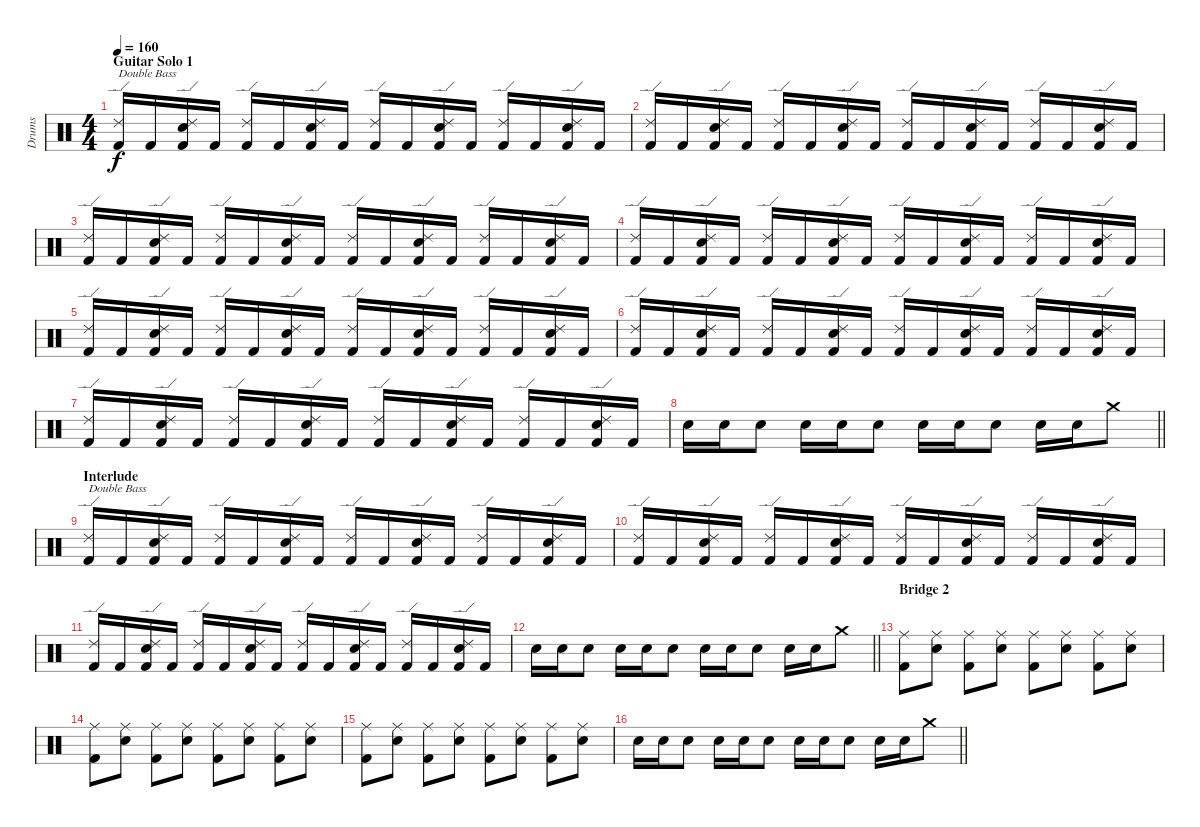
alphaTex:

\track ("Drums" "Drums") {instrument percussion}
\staff {score}
\articulation defaults
\ts (4 4)
\section ("" "Guitar Solo 1")
\tempo 160
\clef neutral
\ks c
("Ride (edge) 2" "Kick (hit) 2").16{txt "Double Bass" dy f} "Kick (hit) 2".16 ("Ride (edge) 2" "Electric Snare (hit)" "Kick (hit) 2").16 "Kick (hit) 2".16 ("Ride (edge) 2" "Kick (hit) 2").16 "Kick (hit) 2".16 ("Ride (edge) 2" "Electric Snare (hit)" "Kick (hit) 2").16 "Kick (hit) 2".16 ("Ride (edge) 2" "Kick (hit) 2").16 "Kick (hit) 2".16 ("Ride (edge) 2" "Electric Snare (hit)" "Kick (hit) 2").16 "Kick (hit) 2".16 ("Ride (edge) 2" "Kick (hit) 2").16 "Kick (hit) 2".16 ("Ride (edge) 2" "Electric Snare (hit)" "Kick (hit) 2").16 "Kick (hit) 2".16 |
("Ride (edge) 2" "Kick (hit) 2").16 "Kick (hit) 2".16 ("Ride (edge) 2" "Electric Snare (hit)" "Kick (hit) 2").16 "Kick (hit) 2".16 ("Ride (edge) 2" "Kick (hit) 2").16 "Kick (hit) 2".16 ("Ride (edge) 2" "Electric Snare (hit)" "Kick (hit) 2").16 "Kick (hit) 2".16 ("Ride (edge) 2" "Kick (hit) 2").16 "Kick (hit) 2".16 ("Ride (edge) 2" "Electric Snare (hit)" "Kick (hit) 2").16 "Kick (hit) 2".16 ("Ride (edge) 2" "Kick (hit) 2").16 "Kick (hit) 2".16 ("Ride (edge) 2" "Electric Snare (hit)" "Kick (hit) 2").16 "Kick (hit) 2".16 |
("Ride (edge) 2" "Kick (hit) 2").16 "Kick (hit) 2".16 ("Ride (edge) 2" "Electric Snare (hit)" "Kick (hit) 2").16 "Kick (hit) 2".16 ("Ride (edge) 2" "Kick (hit) 2").16 "Kick (hit) 2".16 ("Ride (edge) 2" "Electric Snare (hit)" "Kick (hit) 2").16 "Kick (hit) 2".16 ("Ride (edge) 2" "Kick (hit) 2").16 "Kick (hit) 2".16 ("Ride (edge) 2" "Electric Snare (hit)" "Kick (hit) 2").16 "Kick (hit) 2".16 ("Ride (edge) 2" "Kick (hit) 2").16 "Kick (hit) 2".16 ("Ride (edge) 2" "Electric Snare (hit)" "Kick (hit) 2").16 "Kick (hit) 2".16 |
("Ride (edge) 2" "Kick (hit) 2").16 "Kick (hit) 2".16 ("Ride (edge) 2" "Electric Snare (hit)" "Kick (hit) 2").16 "Kick (hit) 2".16 ("Ride (edge) 2" "Kick (hit) 2").16 "Kick (hit) 2".16 ("Ride (edge) 2" "Electric Snare (hit)" "Kick (hit) 2").16 "Kick (hit) 2".16 ("Ride (edge) 2" "Kick (hit) 2").16 "Kick (hit) 2".16 ("Ride (edge) 2" "Electric Snare (hit)" "Kick (hit) 2").16 "Kick (hit) 2".16 ("Ride (edge) 2" "Kick (hit) 2").16 "Kick (hit) 2".16 ("Ride (edge) 2" "Electric Snare (hit)" "Kick (hit) 2").16 "Kick (hit) 2".16 |
("Ride (edge) 2" "Kick (hit) 2").16 "Kick (hit) 2".16 ("Ride (edge) 2" "Electric Snare (hit)" "Kick (hit) 2").16 "Kick (hit) 2".16 ("Ride (edge) 2" "Kick (hit) 2").16 "Kick (hit) 2".16 ("Ride (edge) 2" "Electric Snare (hit)" "Kick (hit) 2").16 "Kick (hit) 2".16 ("Ride (edge) 2" "Kick (hit) 2").16 "Kick (hit) 2".16 ("Ride (edge) 2" "Electric Snare (hit)" "Kick (hit) 2").16 "Kick (hit) 2".16 ("Ride (edge) 2" "Kick (hit) 2").16 "Kick (hit) 2".16 ("Ride (edge) 2" "Electric Snare (hit)" "Kick (hit) 2").16 "Kick (hit) 2".16 |
("Ride (edge) 2" "Kick (hit) 2").16 "Kick (hit) 2".16 ("Ride (edge) 2" "Electric Snare (hit)" "Kick (hit) 2").16 "Kick (hit) 2".16 ("Ride (edge) 2" "Kick (hit) 2").16 "Kick (hit) 2".16 ("Ride (edge) 2" "Electric Snare (hit)" "Kick (hit) 2").16 "Kick (hit) 2".16 ("Ride (edge) 2" "Kick (hit) 2").16 "Kick (hit) 2".16 ("Ride (edge) 2" "Electric Snare (hit)" "Kick (hit) 2").16 "Kick (hit) 2".16 ("Ride (edge) 2" "Kick (hit) 2").16 "Kick (hit) 2".16 ("Ride (edge) 2" "Electric Snare (hit)" "Kick (hit) 2").16 "Kick (hit) 2".16 |
("Ride (edge) 2" "Kick (hit) 2").16 "Kick (hit) 2".16 ("Ride (edge) 2" "Electric Snare (hit)" "Kick (hit) 2").16 "Kick (hit) 2".16 ("Ride (edge) 2" "Kick (hit) 2").16 "Kick (hit) 2".16 ("Ride (edge) 2" "Electric Snare (hit)" "Kick (hit) 2").16 "Kick (hit) 2".16 ("Ride (edge) 2" "Kick (hit) 2").16 "Kick (hit) 2".16 ("Ride (edge) 2" "Electric Snare (hit)" "Kick (hit) 2").16 "Kick (hit) 2".16 ("Ride (edge) 2" "Kick (hit) 2").16 "Kick (hit) 2".16 ("Ride (edge) 2" "Electric Snare (hit)" "Kick (hit) 2").16 "Kick (hit) 2".16 |
\barLineRight lightlight "Electric Snare (hit)".16 "Electric Snare (hit)".16 "Electric Snare (hit)".8 "Electric Snare (hit)".16 "Electric Snare (hit)".16 "Electric Snare (hit)".8 "Electric Snare (hit)".16 "Electric Snare (hit)".16 "Electric Snare (hit)".8 "Electric Snare (hit)".16 "Electric Snare (hit)".16 "Crash medium (hit)".8
|
\section ("" "Interlude")
("Ride (edge) 2" "Kick (hit) 2").16{txt "Double Bass"} "Kick (hit) 2".16 ("Ride (edge) 2" "Electric Snare (hit)" "Kick (hit) 2").16 "Kick (hit) 2".16 ("Ride (edge) 2" "Kick (hit) 2").16 "Kick (hit) 2".16 ("Ride (edge) 2" "Electric Snare (hit)" "Kick (hit) 2").16 "Kick (hit) 2".16 ("Ride (edge) 2" "Kick (hit) 2").16 "Kick (hit) 2".16 ("Ride (edge) 2" "Electric Snare (hit)" "Kick (hit) 2").16 "Kick (hit) 2".16 ("Ride (edge) 2" "Kick (hit) 2").16 "Kick (hit) 2".16 ("Ride (edge) 2" "Electric Snare (hit)" "Kick (hit) 2").16 "Kick (hit) 2".16 |
("Ride (edge) 2" "Kick (hit) 2").16 "Kick (hit) 2".16 ("Ride (edge) 2" "Electric Snare (hit)" "Kick (hit) 2").16 "Kick (hit) 2".16 ("Ride (edge) 2" "Kick (hit) 2").16 "Kick (hit) 2".16 ("Ride (edge) 2" "Electric Snare (hit)" "Kick (hit) 2").16 "Kick (hit) 2".16 ("Ride (edge) 2" "Kick (hit) 2").16 "Kick (hit) 2".16 ("Ride (edge) 2" "Electric Snare (hit)" "Kick (hit) 2").16 "Kick (hit) 2".16 ("Ride (edge) 2" "Kick (hit) 2").16 "Kick (hit) 2".16 ("Ride (edge) 2" "Electric Snare (hit)" "Kick (hit) 2").16 "Kick (hit) 2".16 |
("Ride (edge) 2" "Kick (hit) 2").16 "Kick (hit) 2".16 ("Ride (edge) 2" "Electric Snare (hit)" "Kick (hit) 2").16 "Kick (hit) 2".16 ("Ride (edge) 2" "Kick (hit) 2").16 "Kick (hit) 2".16 ("Ride (edge) 2" "Electric Snare (hit)" "Kick (hit) 2").16 "Kick (hit) 2".16 ("Ride (edge) 2" "Kick (hit) 2").16 "Kick (hit) 2".16 ("Ride (edge) 2" "Electric Snare (hit)" "Kick (hit) 2").16 "Kick (hit) 2".16 ("Ride (edge) 2" "Kick (hit) 2").16 "Kick (hit) 2".16 ("Ride (edge) 2" "Electric Snare (hit)" "Kick (hit) 2").16 "Kick (hit) 2".16 |
\barLineRight lightlight "Electric Snare (hit)".16 "Electric Snare (hit)".16 "Electric Snare (hit)".8 "Electric Snare (hit)".16 "Electric Snare (hit)".16 "Electric Snare (hit)".8 "Electric Snare (hit)".16 "Electric Snare (hit)".16 "Electric Snare (hit)".8 "Electric Snare (hit)".16 "Electric Snare (hit)".16 "Crash medium (hit)".8
|
\section ("" "Bridge 2")
("Ride (middle)" "Kick (hit) 2").8 ("Ride (middle)" "Electric Snare (hit)").8 ("Ride (middle)" "Kick (hit) 2").8 ("Ride (middle)" "Electric Snare (hit)").8 ("Ride (middle)" "Kick (hit) 2").8 ("Ride (middle)" "Electric Snare (hit)").8 ("Ride (middle)" "Kick (hit) 2").8 ("Ride (middle)" "Electric Snare (hit)").8 |
("Ride (middle)" "Kick (hit) 2").8 ("Ride (middle)" "Electric Snare (hit)").8 ("Ride (middle)" "Kick (hit) 2").8 ("Ride (middle)" "Electric Snare (hit)").8 ("Ride (middle)" "Kick (hit) 2").8 ("Ride (middle)" "Electric Snare (hit)").8 ("Ride (middle)" "Kick (hit) 2").8 ("Ride (middle)" "Electric Snare (hit)").8 |
("Ride (middle)" "Kick (hit) 2").8 ("Ride (middle)" "Electric Snare (hit)").8 ("Ride (middle)" "Kick (hit) 2").8 ("Ride (middle)" "Electric Snare (hit)").8 ("Ride (middle)" "Kick (hit) 2").8 ("Ride (middle)" "Electric Snare (hit)").8 ("Ride (middle)" "Kick (hit) 2").8 ("Ride (middle)" "Electric Snare (hit)").8 |
\barLineRight lightlight "Electric Snare (hit)".16 "Electric Snare (hit)".16 "Electric Snare (hit)".8 "Electric Snare (hit)".16 "Electric Snare (hit)".16 "Electric Snare (hit)".8 "Electric Snare (hit)".16 "Electric Snare (hit)".16 "Electric Snare (hit)".8 "Electric Snare (hit)".16 "Electric Snare (hit)".16 "Crash medium (hit)".8
